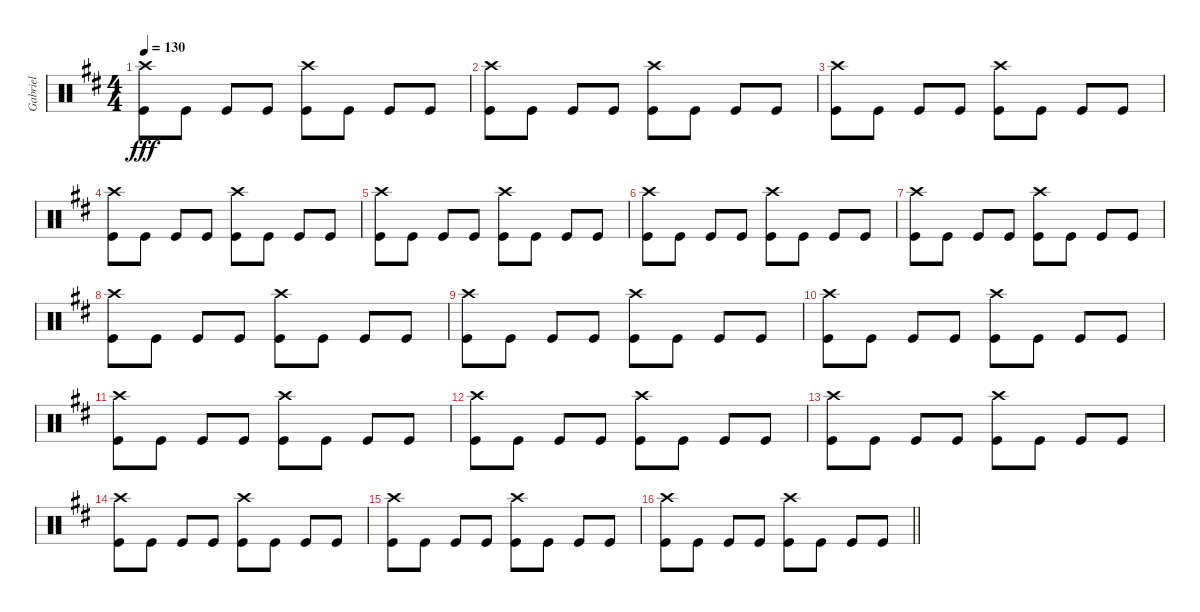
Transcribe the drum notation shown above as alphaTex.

\track ("Gabriel" "Gabriel") {instrument percussion}
\staff {score}
\articulation defaults
\ts (4 4)
\tempo 130
\clef neutral
\ks d
("Crash high (hit)" "Kick (hit)").8{dy fff} "Kick (hit)".8 "Kick (hit)".8 "Kick (hit)".8 ("Crash high (hit)" "Kick (hit)").8 "Kick (hit)".8 "Kick (hit)".8 "Kick (hit)".8 |
("Crash high (hit)" "Kick (hit)").8 "Kick (hit)".8 "Kick (hit)".8 "Kick (hit)".8 ("Crash high (hit)" "Kick (hit)").8 "Kick (hit)".8 "Kick (hit)".8 "Kick (hit)".8 |
("Crash high (hit)" "Kick (hit)").8 "Kick (hit)".8 "Kick (hit)".8 "Kick (hit)".8 ("Crash high (hit)" "Kick (hit)").8 "Kick (hit)".8 "Kick (hit)".8 "Kick (hit)".8 |
("Crash high (hit)" "Kick (hit)").8 "Kick (hit)".8 "Kick (hit)".8 "Kick (hit)".8 ("Crash high (hit)" "Kick (hit)").8 "Kick (hit)".8 "Kick (hit)".8 "Kick (hit)".8 |
("Crash high (hit)" "Kick (hit)").8 "Kick (hit)".8 "Kick (hit)".8 "Kick (hit)".8 ("Crash high (hit)" "Kick (hit)").8 "Kick (hit)".8 "Kick (hit)".8 "Kick (hit)".8 |
("Crash high (hit)" "Kick (hit)").8 "Kick (hit)".8 "Kick (hit)".8 "Kick (hit)".8 ("Crash high (hit)" "Kick (hit)").8 "Kick (hit)".8 "Kick (hit)".8 "Kick (hit)".8 |
("Crash high (hit)" "Kick (hit)").8 "Kick (hit)".8 "Kick (hit)".8 "Kick (hit)".8 ("Crash high (hit)" "Kick (hit)").8 "Kick (hit)".8 "Kick (hit)".8 "Kick (hit)".8 |
("Crash high (hit)" "Kick (hit)").8 "Kick (hit)".8 "Kick (hit)".8 "Kick (hit)".8 ("Crash high (hit)" "Kick (hit)").8 "Kick (hit)".8 "Kick (hit)".8 "Kick (hit)".8 |
("Crash high (hit)" "Kick (hit)").8 "Kick (hit)".8 "Kick (hit)".8 "Kick (hit)".8 ("Crash high (hit)" "Kick (hit)").8 "Kick (hit)".8 "Kick (hit)".8 "Kick (hit)".8 |
("Crash high (hit)" "Kick (hit)").8 "Kick (hit)".8 "Kick (hit)".8 "Kick (hit)".8 ("Crash high (hit)" "Kick (hit)").8 "Kick (hit)".8 "Kick (hit)".8 "Kick (hit)".8 |
("Crash high (hit)" "Kick (hit)").8 "Kick (hit)".8 "Kick (hit)".8 "Kick (hit)".8 ("Crash high (hit)" "Kick (hit)").8 "Kick (hit)".8 "Kick (hit)".8 "Kick (hit)".8 |
("Crash high (hit)" "Kick (hit)").8 "Kick (hit)".8 "Kick (hit)".8 "Kick (hit)".8 ("Crash high (hit)" "Kick (hit)").8 "Kick (hit)".8 "Kick (hit)".8 "Kick (hit)".8 |
("Crash high (hit)" "Kick (hit)").8 "Kick (hit)".8 "Kick (hit)".8 "Kick (hit)".8 ("Crash high (hit)" "Kick (hit)").8 "Kick (hit)".8 "Kick (hit)".8 "Kick (hit)".8 |
("Crash high (hit)" "Kick (hit)").8 "Kick (hit)".8 "Kick (hit)".8 "Kick (hit)".8 ("Crash high (hit)" "Kick (hit)").8 "Kick (hit)".8 "Kick (hit)".8 "Kick (hit)".8 |
("Crash high (hit)" "Kick (hit)").8 "Kick (hit)".8 "Kick (hit)".8 "Kick (hit)".8 ("Crash high (hit)" "Kick (hit)").8 "Kick (hit)".8 "Kick (hit)".8 "Kick (hit)".8 |
\barLineRight lightlight
("Crash high (hit)" "Kick (hit)").8 "Kick (hit)".8 "Kick (hit)".8 "Kick (hit)".8 ("Crash high (hit)" "Kick (hit)").8 "Kick (hit)".8 "Kick (hit)".8 "Kick (hit)".8
